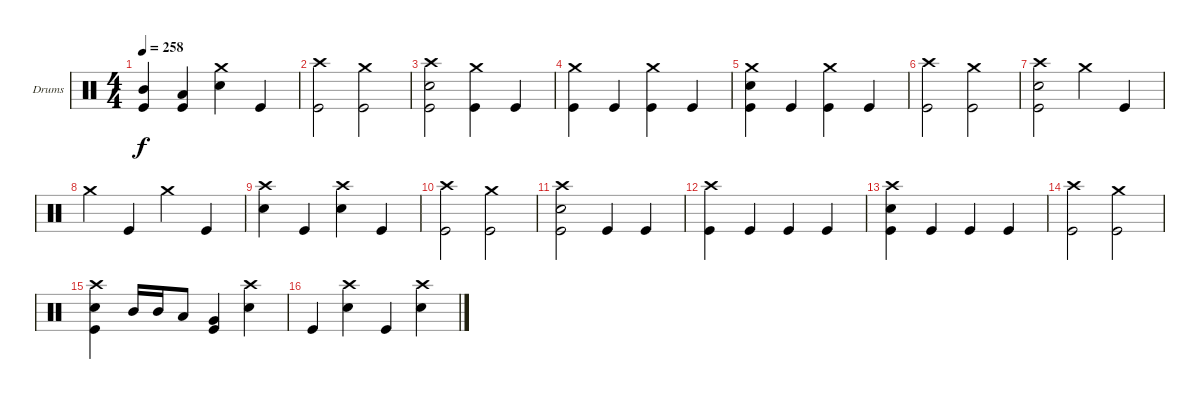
\defaultSystemsLayout 4
\bracketExtendMode groupsimilarinstruments
\firstSystemTrackNameOrientation horizontal
\otherSystemsTrackNameOrientation horizontal
\track ("Drumkit" "Drums") {instrument percussion}
\staff {score}
\articulation defaults
\ts (4 4)
\tempo 258
\clef neutral
\ks c
("Kick (hit)" "Mid Tom (hit)").4{dy f} ("Kick (hit)" "Low Tom (hit)").4 ("Snare (hit) 2" "Crash medium (hit)").4 "Kick (hit)".4 |
("Kick (hit)" "Crash high (hit)").2 ("Kick (hit)" "Crash medium (hit)").2 |
("Snare (hit) 2" "Kick (hit)" "Crash high (hit)").2 ("Kick (hit)" "Crash medium (hit)").4 "Kick (hit)".4 |
("Kick (hit)" "Crash medium (hit)").4 "Kick (hit)".4 ("Kick (hit)" "Crash medium (hit)").4 "Kick (hit)".4 |
("Snare (hit) 2" "Kick (hit)" "Crash medium (hit)").4 "Kick (hit)".4 ("Kick (hit)" "Crash medium (hit)").4 "Kick (hit)".4 |
("Kick (hit)" "Crash high (hit)").2 ("Kick (hit)" "Crash medium (hit)").2 |
("Crash high (hit)" "Snare (hit) 2" "Kick (hit)").2 "Crash medium (hit)".4 "Kick (hit)".4 |
"Crash medium (hit)".4 "Kick (hit)".4 "Crash medium (hit)".4 "Kick (hit)".4 |
("Snare (hit) 2" "Crash high (hit)").4 "Kick (hit)".4 ("Snare (hit) 2" "Crash high (hit)").4 "Kick (hit)".4 |
("Kick (hit)" "Crash high (hit)").2 ("Kick (hit)" "Crash medium (hit)").2 |
("Snare (hit) 2" "Kick (hit)" "Crash high (hit)").2 "Kick (hit)".4 "Kick (hit)".4 |
("Kick (hit)" "Crash high (hit)").4 "Kick (hit)".4 "Kick (hit)".4 "Kick (hit)".4 |
("Kick (hit)" "Crash high (hit)" "Snare (hit) 2").4 "Kick (hit)".4 "Kick (hit)".4 "Kick (hit)".4 |
("Kick (hit)" "Crash high (hit)").2 ("Kick (hit)" "Crash medium (hit)").2 |
("Snare (hit) 2" "Kick (hit)" "Crash high (hit)").4 "Mid Tom (hit)".16 "Mid Tom (hit)".16 "Low Tom (hit)".8 ("Very Low Tom (hit)" "Kick (hit)").4 ("Snare (hit) 2" "Crash high (hit)").4 |
"Kick (hit)".4 ("Snare (hit) 2" "Crash high (hit)").4 "Kick (hit)".4 ("Snare (hit) 2" "Crash high (hit)").4
